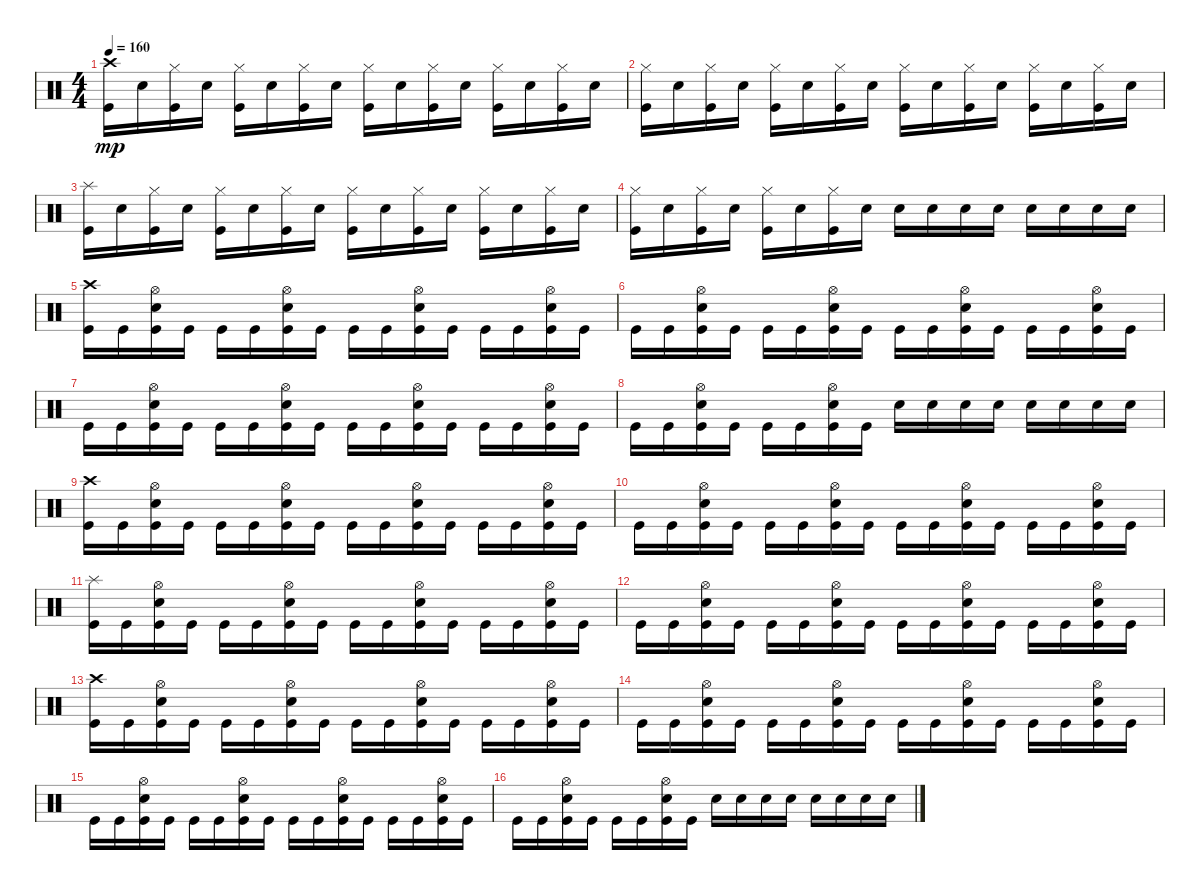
\track "" {instrument percussion}
\staff {score}
\articulation defaults
\ts (4 4)
\tempo 160
\clef neutral
\ks c
("Kick (hit)" "Crash high (hit)").16{dy mp} "Snare (hit) 2".16 ("Kick (hit)" "Hi-Hat (closed)").16 "Snare (hit) 2".16 ("Kick (hit)" "Hi-Hat (closed)").16 "Snare (hit) 2".16 ("Kick (hit)" "Hi-Hat (closed)").16 "Snare (hit) 2".16 ("Kick (hit)" "Hi-Hat (closed)").16 "Snare (hit) 2".16 ("Kick (hit)" "Hi-Hat (closed)").16 "Snare (hit) 2".16 ("Kick (hit)" "Hi-Hat (closed)").16 "Snare (hit) 2".16 ("Kick (hit)" "Hi-Hat (closed)").16 "Snare (hit) 2".16 |
("Kick (hit)" "Hi-Hat (closed)").16 "Snare (hit) 2".16 ("Kick (hit)" "Hi-Hat (closed)").16 "Snare (hit) 2".16 ("Kick (hit)" "Hi-Hat (closed)").16 "Snare (hit) 2".16 ("Kick (hit)" "Hi-Hat (closed)").16 "Snare (hit) 2".16 ("Kick (hit)" "Hi-Hat (closed)").16 "Snare (hit) 2".16 ("Kick (hit)" "Hi-Hat (closed)").16 "Snare (hit) 2".16 ("Kick (hit)" "Hi-Hat (closed)").16 "Snare (hit) 2".16 ("Kick (hit)" "Hi-Hat (closed)").16 "Snare (hit) 2".16 |
("Kick (hit)" "Splash (hit)").16 "Snare (hit) 2".16 ("Kick (hit)" "Hi-Hat (closed)").16 "Snare (hit) 2".16 ("Kick (hit)" "Hi-Hat (closed)").16 "Snare (hit) 2".16 ("Kick (hit)" "Hi-Hat (closed)").16 "Snare (hit) 2".16 ("Kick (hit)" "Hi-Hat (closed)").16 "Snare (hit) 2".16 ("Kick (hit)" "Hi-Hat (closed)").16 "Snare (hit) 2".16 ("Kick (hit)" "Hi-Hat (closed)").16 "Snare (hit) 2".16 ("Kick (hit)" "Hi-Hat (closed)").16 "Snare (hit) 2".16 |
("Kick (hit)" "Hi-Hat (closed)").16 "Snare (hit) 2".16 ("Kick (hit)" "Hi-Hat (closed)").16 "Snare (hit) 2".16 ("Kick (hit)" "Hi-Hat (closed)").16 "Snare (hit) 2".16 ("Kick (hit)" "Hi-Hat (closed)").16 "Snare (hit) 2".16 "Snare (hit) 2".16 "Snare (hit) 2".16 "Snare (hit) 2".16 "Snare (hit) 2".16 "Snare (hit) 2".16 "Snare (hit) 2".16 "Snare (hit) 2".16 "Snare (hit) 2".16 |
("Kick (hit)" "Crash high (hit)").16 "Kick (hit)".16 ("Kick (hit)" "Snare (hit) 2" "Hi-Hat (open)").16 "Kick (hit)".16 "Kick (hit)".16 "Kick (hit)".16 ("Kick (hit)" "Snare (hit) 2" "Hi-Hat (open)").16 "Kick (hit)".16 "Kick (hit)".16 "Kick (hit)".16 ("Kick (hit)" "Snare (hit) 2" "Hi-Hat (open)").16 "Kick (hit)".16 "Kick (hit)".16 "Kick (hit)".16 ("Kick (hit)" "Snare (hit) 2" "Hi-Hat (open)").16 "Kick (hit)".16 |
"Kick (hit)".16 "Kick (hit)".16 ("Kick (hit)" "Snare (hit) 2" "Hi-Hat (open)").16 "Kick (hit)".16 "Kick (hit)".16 "Kick (hit)".16 ("Kick (hit)" "Snare (hit) 2" "Hi-Hat (open)").16 "Kick (hit)".16 "Kick (hit)".16 "Kick (hit)".16 ("Kick (hit)" "Snare (hit) 2" "Hi-Hat (open)").16 "Kick (hit)".16 "Kick (hit)".16 "Kick (hit)".16 ("Kick (hit)" "Snare (hit) 2" "Hi-Hat (open)").16 "Kick (hit)".16 |
"Kick (hit)".16 "Kick (hit)".16 ("Kick (hit)" "Snare (hit) 2" "Hi-Hat (open)").16 "Kick (hit)".16 "Kick (hit)".16 "Kick (hit)".16 ("Kick (hit)" "Snare (hit) 2" "Hi-Hat (open)").16 "Kick (hit)".16 "Kick (hit)".16 "Kick (hit)".16 ("Kick (hit)" "Snare (hit) 2" "Hi-Hat (open)").16 "Kick (hit)".16 "Kick (hit)".16 "Kick (hit)".16 ("Kick (hit)" "Snare (hit) 2" "Hi-Hat (open)").16 "Kick (hit)".16 |
"Kick (hit)".16 "Kick (hit)".16 ("Kick (hit)" "Snare (hit) 2" "Hi-Hat (open)").16 "Kick (hit)".16 "Kick (hit)".16 "Kick (hit)".16 ("Kick (hit)" "Snare (hit) 2" "Hi-Hat (open)").16 "Kick (hit)".16 "Snare (hit) 2".16 "Snare (hit) 2".16 "Snare (hit) 2".16 "Snare (hit) 2".16 "Snare (hit) 2".16 "Snare (hit) 2".16 "Snare (hit) 2".16 "Snare (hit) 2".16 |
("Kick (hit)" "Crash high (hit)").16 "Kick (hit)".16 ("Kick (hit)" "Snare (hit) 2" "Hi-Hat (open)").16 "Kick (hit)".16 "Kick (hit)".16 "Kick (hit)".16 ("Kick (hit)" "Snare (hit) 2" "Hi-Hat (open)").16 "Kick (hit)".16 "Kick (hit)".16 "Kick (hit)".16 ("Kick (hit)" "Snare (hit) 2" "Hi-Hat (open)").16 "Kick (hit)".16 "Kick (hit)".16 "Kick (hit)".16 ("Kick (hit)" "Snare (hit) 2" "Hi-Hat (open)").16 "Kick (hit)".16 |
"Kick (hit)".16 "Kick (hit)".16 ("Kick (hit)" "Snare (hit) 2" "Hi-Hat (open)").16 "Kick (hit)".16 "Kick (hit)".16 "Kick (hit)".16 ("Kick (hit)" "Snare (hit) 2" "Hi-Hat (open)").16 "Kick (hit)".16 "Kick (hit)".16 "Kick (hit)".16 ("Kick (hit)" "Snare (hit) 2" "Hi-Hat (open)").16 "Kick (hit)".16 "Kick (hit)".16 "Kick (hit)".16 ("Kick (hit)" "Snare (hit) 2" "Hi-Hat (open)").16 "Kick (hit)".16 |
("Kick (hit)" "Splash (hit)").16 "Kick (hit)".16 ("Kick (hit)" "Snare (hit) 2" "Hi-Hat (open)").16 "Kick (hit)".16 "Kick (hit)".16 "Kick (hit)".16 ("Kick (hit)" "Snare (hit) 2" "Hi-Hat (open)").16 "Kick (hit)".16 "Kick (hit)".16 "Kick (hit)".16 ("Kick (hit)" "Snare (hit) 2" "Hi-Hat (open)").16 "Kick (hit)".16 "Kick (hit)".16 "Kick (hit)".16 ("Kick (hit)" "Snare (hit) 2" "Hi-Hat (open)").16 "Kick (hit)".16 |
"Kick (hit)".16 "Kick (hit)".16 ("Kick (hit)" "Snare (hit) 2" "Hi-Hat (open)").16 "Kick (hit)".16 "Kick (hit)".16 "Kick (hit)".16 ("Kick (hit)" "Snare (hit) 2" "Hi-Hat (open)").16 "Kick (hit)".16 "Kick (hit)".16 "Kick (hit)".16 ("Snare (hit) 2" "Kick (hit)" "Hi-Hat (open)").16 "Kick (hit)".16 "Kick (hit)".16 "Kick (hit)".16 ("Snare (hit) 2" "Kick (hit)" "Hi-Hat (open)").16 "Kick (hit)".16 |
("Kick (hit)" "Crash high (hit)").16 "Kick (hit)".16 ("Kick (hit)" "Snare (hit) 2" "Hi-Hat (open)").16 "Kick (hit)".16 "Kick (hit)".16 "Kick (hit)".16 ("Kick (hit)" "Snare (hit) 2" "Hi-Hat (open)").16 "Kick (hit)".16 "Kick (hit)".16 "Kick (hit)".16 ("Kick (hit)" "Snare (hit) 2" "Hi-Hat (open)").16 "Kick (hit)".16 "Kick (hit)".16 "Kick (hit)".16 ("Kick (hit)" "Snare (hit) 2" "Hi-Hat (open)").16 "Kick (hit)".16 |
"Kick (hit)".16 "Kick (hit)".16 ("Kick (hit)" "Snare (hit) 2" "Hi-Hat (open)").16 "Kick (hit)".16 "Kick (hit)".16 "Kick (hit)".16 ("Kick (hit)" "Snare (hit) 2" "Hi-Hat (open)").16 "Kick (hit)".16 "Kick (hit)".16 "Kick (hit)".16 ("Kick (hit)" "Snare (hit) 2" "Hi-Hat (open)").16 "Kick (hit)".16 "Kick (hit)".16 "Kick (hit)".16 ("Kick (hit)" "Snare (hit) 2" "Hi-Hat (open)").16 "Kick (hit)".16 |
"Kick (hit)".16 "Kick (hit)".16 ("Kick (hit)" "Snare (hit) 2" "Hi-Hat (open)").16 "Kick (hit)".16 "Kick (hit)".16 "Kick (hit)".16 ("Kick (hit)" "Snare (hit) 2" "Hi-Hat (open)").16 "Kick (hit)".16 "Kick (hit)".16 "Kick (hit)".16 ("Kick (hit)" "Snare (hit) 2" "Hi-Hat (open)").16 "Kick (hit)".16 "Kick (hit)".16 "Kick (hit)".16 ("Kick (hit)" "Snare (hit) 2" "Hi-Hat (open)").16 "Kick (hit)".16 |
"Kick (hit)".16 "Kick (hit)".16 ("Kick (hit)" "Snare (hit) 2" "Hi-Hat (open)").16 "Kick (hit)".16 "Kick (hit)".16 "Kick (hit)".16 ("Kick (hit)" "Snare (hit) 2" "Hi-Hat (open)").16 "Kick (hit)".16 "Snare (hit) 2".16 "Snare (hit) 2".16 "Snare (hit) 2".16 "Snare (hit) 2".16 "Snare (hit) 2".16 "Snare (hit) 2".16 "Snare (hit) 2".16 "Snare (hit) 2".16
